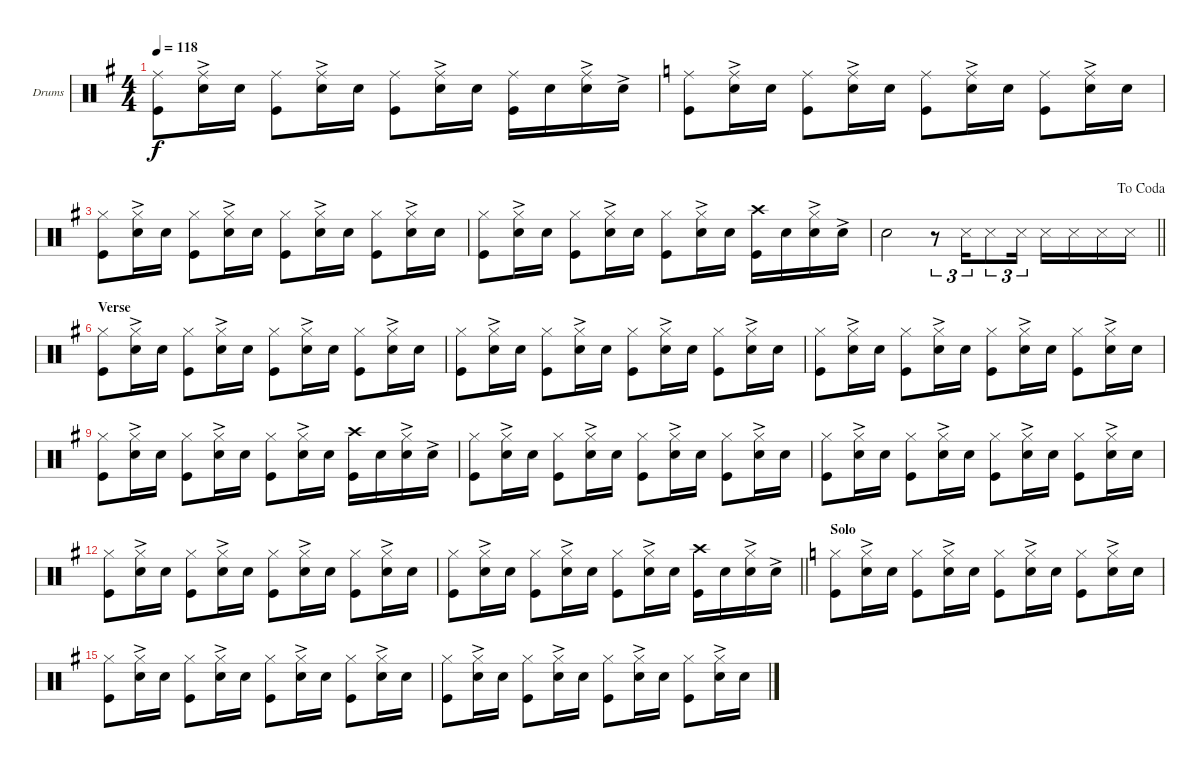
\bracketExtendMode nobrackets
\firstSystemTrackNameOrientation horizontal
\otherSystemsTrackNameOrientation horizontal
\defaultBarNumberDisplay FirstOfSystem
\track ("Drumkit" "Drums") {instrument percussion}
\staff {score}
\articulation defaults
\ts (4 4)
\tempo 118
\clef neutral
\scale
0.293194
\ks g
("Kick (hit)" "Ride (middle)").8{dy f} ("Snare (hit) 2"{ac} "Ride (middle)").16 "Snare (hit) 2".16 ("Kick (hit)" "Ride (middle)").8 ("Snare (hit) 2"{ac} "Ride (middle)").16 "Snare (hit) 2".16 ("Kick (hit)" "Ride (middle)").8 ("Snare (hit) 2"{ac} "Ride (middle)").16 "Snare (hit) 2".16 ("Kick (hit)" "Ride (middle)").16 "Snare (hit) 2".16 ("Snare (hit) 2"{ac} "Ride (middle)").16 "Snare (hit) 2"{ac}.16 |
\scale
0.34555
\ks c
("Kick (hit)" "Ride (middle)").8 ("Snare (hit) 2"{ac} "Ride (middle)").16 "Snare (hit) 2".16 ("Kick (hit)" "Ride (middle)").8 ("Snare (hit) 2"{ac} "Ride (middle)").16 "Snare (hit) 2".16 ("Kick (hit)" "Ride (middle)").8 ("Snare (hit) 2"{ac} "Ride (middle)").16 "Snare (hit) 2".16 ("Kick (hit)" "Ride (middle)").8 ("Snare (hit) 2"{ac} "Ride (middle)").16 "Snare (hit) 2".16 |
\scale
0.361257
\ks g
("Kick (hit)" "Hi-Hat (closed)").8 ("Snare (hit) 2"{ac} "Hi-Hat (closed)").16 "Snare (hit) 2".16 ("Kick (hit)" "Hi-Hat (closed)").8 ("Snare (hit) 2"{ac} "Hi-Hat (closed)").16 "Snare (hit) 2".16 ("Kick (hit)" "Hi-Hat (closed)").8 ("Snare (hit) 2"{ac} "Hi-Hat (closed)").16 "Snare (hit) 2".16 ("Kick (hit)" "Hi-Hat (closed)").8 ("Snare (hit) 2"{ac} "Hi-Hat (closed)").16 "Snare (hit) 2".16 |
\scale
0.314607 ("Kick (hit)" "Hi-Hat (closed)").8 ("Snare (hit) 2"{ac} "Hi-Hat (closed)").16 "Snare (hit) 2".16 ("Kick (hit)" "Hi-Hat (closed)").8 ("Snare (hit) 2"{ac} "Hi-Hat (closed)").16 "Snare (hit) 2".16 ("Kick (hit)" "Hi-Hat (closed)").8 ("Snare (hit) 2"{ac} "Hi-Hat (closed)").16 "Snare (hit) 2".16 ("Kick (hit)" "Crash high (hit)").16 "Snare (hit) 2".16 ("Snare (hit) 2"{ac} "Hi-Hat (closed)").16 "Snare (hit) 2"{ac}.16 |
\jump dacoda
\scale
0.314607
\barLineRight lightlight "Snare (hit) 2".2
r.8{tu (3 2)} "Snare (side stick) 3".16{tu (3 2) beam merge} "Snare (side stick) 3".8{tu (3 2)} "Snare (side stick) 3".16{tu (3 2)} "Snare (side stick) 3".16 "Snare (side stick) 3".16{beam merge} "Snare (side stick) 3".16{beam merge} "Snare (side stick) 3".16 |
\section ("" "Verse")
\scale
0.370787 ("Kick (hit)" "Hi-Hat (closed)").8 ("Snare (hit) 2"{ac} "Hi-Hat (closed)").16 "Snare (hit) 2".16 ("Kick (hit)" "Hi-Hat (closed)").8 ("Snare (hit) 2"{ac} "Hi-Hat (closed)").16 "Snare (hit) 2".16 ("Kick (hit)" "Hi-Hat (closed)").8 ("Snare (hit) 2"{ac} "Hi-Hat (closed)").16 "Snare (hit) 2".16 ("Kick (hit)" "Hi-Hat (closed)").8 ("Snare (hit) 2"{ac} "Hi-Hat (closed)").16 "Snare (hit) 2".16 |
("Kick (hit)" "Hi-Hat (closed)").8 ("Snare (hit) 2"{ac} "Hi-Hat (closed)").16 "Snare (hit) 2".16 ("Kick (hit)" "Hi-Hat (closed)").8 ("Snare (hit) 2"{ac} "Hi-Hat (closed)").16 "Snare (hit) 2".16 ("Kick (hit)" "Hi-Hat (closed)").8 ("Snare (hit) 2"{ac} "Hi-Hat (closed)").16 "Snare (hit) 2".16 ("Kick (hit)" "Hi-Hat (closed)").8 ("Snare (hit) 2"{ac} "Hi-Hat (closed)").16 "Snare (hit) 2".16 |
\scale
0.381215 ("Kick (hit)" "Hi-Hat (closed)").8 ("Snare (hit) 2"{ac} "Hi-Hat (closed)").16 "Snare (hit) 2".16 ("Kick (hit)" "Hi-Hat (closed)").8 ("Snare (hit) 2"{ac} "Hi-Hat (closed)").16 "Snare (hit) 2".16 ("Kick (hit)" "Hi-Hat (closed)").8 ("Snare (hit) 2"{ac} "Hi-Hat (closed)").16 "Snare (hit) 2".16 ("Kick (hit)" "Hi-Hat (closed)").8 ("Snare (hit) 2"{ac} "Hi-Hat (closed)").16 "Snare (hit) 2".16 |
\scale
0.309392 ("Kick (hit)" "Hi-Hat (closed)").8 ("Snare (hit) 2"{ac} "Hi-Hat (closed)").16 "Snare (hit) 2".16 ("Kick (hit)" "Hi-Hat (closed)").8 ("Snare (hit) 2"{ac} "Hi-Hat (closed)").16 "Snare (hit) 2".16 ("Kick (hit)" "Hi-Hat (closed)").8 ("Snare (hit) 2"{ac} "Hi-Hat (closed)").16 "Snare (hit) 2".16 ("Kick (hit)" "Crash high (hit)").16 "Snare (hit) 2".16 ("Snare (hit) 2"{ac} "Hi-Hat (closed)").16 "Snare (hit) 2"{ac}.16 |
\scale
0.309392 ("Kick (hit)" "Hi-Hat (closed)").8 ("Snare (hit) 2"{ac} "Hi-Hat (closed)").16 "Snare (hit) 2".16 ("Kick (hit)" "Hi-Hat (closed)").8 ("Snare (hit) 2"{ac} "Hi-Hat (closed)").16 "Snare (hit) 2".16 ("Kick (hit)" "Hi-Hat (closed)").8 ("Snare (hit) 2"{ac} "Hi-Hat (closed)").16 "Snare (hit) 2".16 ("Kick (hit)" "Hi-Hat (closed)").8 ("Snare (hit) 2"{ac} "Hi-Hat (closed)").16 "Snare (hit) 2".16 |
\scale
0.293194 ("Kick (hit)" "Hi-Hat (closed)").8 ("Snare (hit) 2"{ac} "Hi-Hat (closed)").16 "Snare (hit) 2".16 ("Kick (hit)" "Hi-Hat (closed)").8 ("Snare (hit) 2"{ac} "Hi-Hat (closed)").16 "Snare (hit) 2".16 ("Kick (hit)" "Hi-Hat (closed)").8 ("Snare (hit) 2"{ac} "Hi-Hat (closed)").16 "Snare (hit) 2".16 ("Kick (hit)" "Hi-Hat (closed)").8 ("Snare (hit) 2"{ac} "Hi-Hat (closed)").16 "Snare (hit) 2".16 |
\scale
0.293194 ("Kick (hit)" "Hi-Hat (closed)").8 ("Snare (hit) 2"{ac} "Hi-Hat (closed)").16 "Snare (hit) 2".16 ("Kick (hit)" "Hi-Hat (closed)").8 ("Snare (hit) 2"{ac} "Hi-Hat (closed)").16 "Snare (hit) 2".16 ("Kick (hit)" "Hi-Hat (closed)").8 ("Snare (hit) 2"{ac} "Hi-Hat (closed)").16 "Snare (hit) 2".16 ("Kick (hit)" "Hi-Hat (closed)").8 ("Snare (hit) 2"{ac} "Hi-Hat (closed)").16 "Snare (hit) 2".16 |
\barLineRight lightlight
("Kick (hit)" "Hi-Hat (closed)").8 ("Snare (hit) 2"{ac} "Hi-Hat (closed)").16 "Snare (hit) 2".16 ("Kick (hit)" "Hi-Hat (closed)").8 ("Snare (hit) 2"{ac} "Hi-Hat (closed)").16 "Snare (hit) 2".16 ("Kick (hit)" "Hi-Hat (closed)").8 ("Snare (hit) 2"{ac} "Hi-Hat (closed)").16 "Snare (hit) 2".16 ("Kick (hit)" "Crash high (hit)").16 "Snare (hit) 2".16 ("Snare (hit) 2"{ac} "Hi-Hat (closed)").16 "Snare (hit) 2"{ac}.16 |
\section ("" "Solo")
\scale
0.34555
\ks c
("Kick (hit)" "Hi-Hat (closed)").8 ("Snare (hit) 2"{ac} "Hi-Hat (closed)").16 "Snare (hit) 2".16 ("Kick (hit)" "Hi-Hat (closed)").8 ("Snare (hit) 2"{ac} "Hi-Hat (closed)").16 "Snare (hit) 2".16 ("Kick (hit)" "Hi-Hat (closed)").8 ("Snare (hit) 2"{ac} "Hi-Hat (closed)").16 "Snare (hit) 2".16 ("Kick (hit)" "Hi-Hat (closed)").8 ("Snare (hit) 2"{ac} "Hi-Hat (closed)").16 "Snare (hit) 2".16 |
\scale
0.361257
\ks g
("Kick (hit)" "Hi-Hat (closed)").8 ("Snare (hit) 2"{ac} "Hi-Hat (closed)").16 "Snare (hit) 2".16 ("Kick (hit)" "Hi-Hat (closed)").8 ("Snare (hit) 2"{ac} "Hi-Hat (closed)").16 "Snare (hit) 2".16 ("Kick (hit)" "Hi-Hat (closed)").8 ("Snare (hit) 2"{ac} "Hi-Hat (closed)").16 "Snare (hit) 2".16 ("Kick (hit)" "Hi-Hat (closed)").8 ("Snare (hit) 2"{ac} "Hi-Hat (closed)").16 "Snare (hit) 2".16 |
\scale
0.314607 ("Kick (hit)" "Hi-Hat (closed)").8 ("Snare (hit) 2"{ac} "Hi-Hat (closed)").16 "Snare (hit) 2".16 ("Kick (hit)" "Hi-Hat (closed)").8 ("Snare (hit) 2"{ac} "Hi-Hat (closed)").16 "Snare (hit) 2".16 ("Kick (hit)" "Hi-Hat (closed)").8 ("Snare (hit) 2"{ac} "Hi-Hat (closed)").16 "Snare (hit) 2".16 ("Kick (hit)" "Hi-Hat (closed)").8 ("Snare (hit) 2"{ac} "Hi-Hat (closed)").16 "Snare (hit) 2".16
